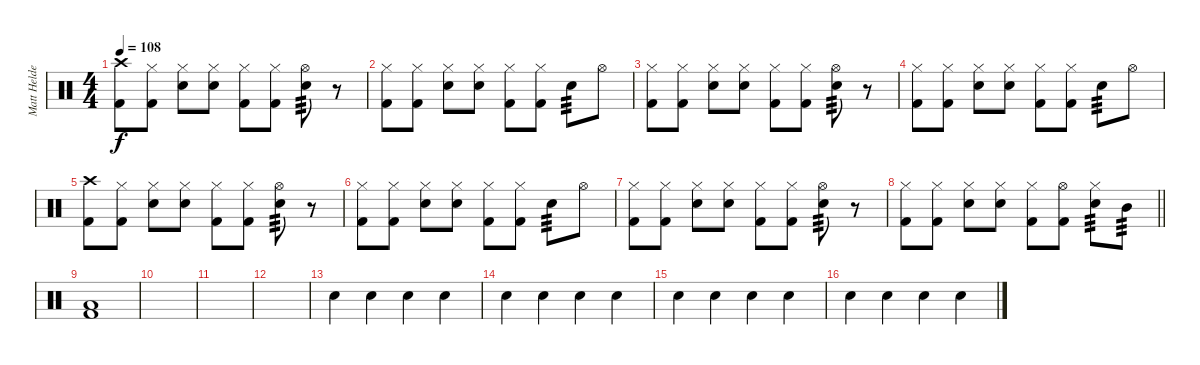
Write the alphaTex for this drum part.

\track ("Matt Helder" "Matt Helde") {instrument percussion}
\staff {score}
\articulation defaults
\ts (4 4)
\tempo 108
\clef neutral
\ks c
("Crash high (hit)" "Kick (hit) 2").8{dy f} ("Hi-Hat (closed)" "Kick (hit) 2").8 ("Hi-Hat (closed)" "Electric Snare (hit)").8 ("Hi-Hat (closed)" "Electric Snare (hit)").8 ("Hi-Hat (closed)" "Kick (hit) 2").8 ("Hi-Hat (closed)" "Kick (hit) 2").8 ("Hi-Hat (open)" "Electric Snare (hit)").8{tp 3} r.8 |
("Hi-Hat (closed)" "Kick (hit) 2").8 ("Hi-Hat (closed)" "Kick (hit) 2").8 ("Hi-Hat (closed)" "Electric Snare (hit)").8 ("Hi-Hat (closed)" "Electric Snare (hit)").8 ("Hi-Hat (closed)" "Kick (hit) 2").8 ("Hi-Hat (closed)" "Kick (hit) 2").8 "Electric Snare (hit)".8{tp 3} "Hi-Hat (open)".8 |
("Hi-Hat (closed)" "Kick (hit) 2").8 ("Hi-Hat (closed)" "Kick (hit) 2").8 ("Hi-Hat (closed)" "Electric Snare (hit)").8 ("Hi-Hat (closed)" "Electric Snare (hit)").8 ("Hi-Hat (closed)" "Kick (hit) 2").8 ("Hi-Hat (closed)" "Kick (hit) 2").8 ("Hi-Hat (open)" "Electric Snare (hit)").8{tp 3} r.8 |
("Hi-Hat (closed)" "Kick (hit) 2").8 ("Hi-Hat (closed)" "Kick (hit) 2").8 ("Hi-Hat (closed)" "Electric Snare (hit)").8 ("Hi-Hat (closed)" "Electric Snare (hit)").8 ("Hi-Hat (closed)" "Kick (hit) 2").8 ("Hi-Hat (closed)" "Kick (hit) 2").8 "Electric Snare (hit)".8{tp 3} "Hi-Hat (open)".8 |
("Crash high (hit)" "Kick (hit) 2").8 ("Hi-Hat (closed)" "Kick (hit) 2").8 ("Hi-Hat (closed)" "Electric Snare (hit)").8 ("Hi-Hat (closed)" "Electric Snare (hit)").8 ("Hi-Hat (closed)" "Kick (hit) 2").8 ("Hi-Hat (closed)" "Kick (hit) 2").8 ("Hi-Hat (open)" "Electric Snare (hit)").8{tp 3} r.8 |
("Hi-Hat (closed)" "Kick (hit) 2").8 ("Hi-Hat (closed)" "Kick (hit) 2").8 ("Hi-Hat (closed)" "Electric Snare (hit)").8 ("Hi-Hat (closed)" "Electric Snare (hit)").8 ("Hi-Hat (closed)" "Kick (hit) 2").8 ("Hi-Hat (closed)" "Kick (hit) 2").8 "Electric Snare (hit)".8{tp 3} "Hi-Hat (open)".8 |
("Hi-Hat (closed)" "Kick (hit) 2").8 ("Hi-Hat (closed)" "Kick (hit) 2").8 ("Hi-Hat (closed)" "Electric Snare (hit)").8 ("Hi-Hat (closed)" "Electric Snare (hit)").8 ("Hi-Hat (closed)" "Kick (hit) 2").8 ("Hi-Hat (closed)" "Kick (hit) 2").8 ("Hi-Hat (open)" "Electric Snare (hit)").8{tp 3} r.8 |
\barLineRight lightlight
("Hi-Hat (closed)" "Kick (hit) 2").8 ("Hi-Hat (closed)" "Kick (hit) 2").8 ("Hi-Hat (closed)" "Electric Snare (hit)").8 ("Hi-Hat (closed)" "Electric Snare (hit)").8 ("Hi-Hat (closed)" "Kick (hit) 2").8 ("Hi-Hat (open)" "Kick (hit) 2").8 ("Hi-Hat (closed)" "Electric Snare (hit)").8{tp 3} "Mid Tom (hit)".8{tp 3} |
("Kick (hit) 2" "Low Floor Tom (hit)").1 |
|
|
|
"Electric Snare (hit)".4 "Electric Snare (hit)".4 "Electric Snare (hit)".4 "Electric Snare (hit)".4 |
"Electric Snare (hit)".4 "Electric Snare (hit)".4 "Electric Snare (hit)".4 "Electric Snare (hit)".4 |
"Electric Snare (hit)".4 "Electric Snare (hit)".4 "Electric Snare (hit)".4 "Electric Snare (hit)".4 |
"Electric Snare (hit)".4 "Electric Snare (hit)".4 "Electric Snare (hit)".4 "Electric Snare (hit)".4
